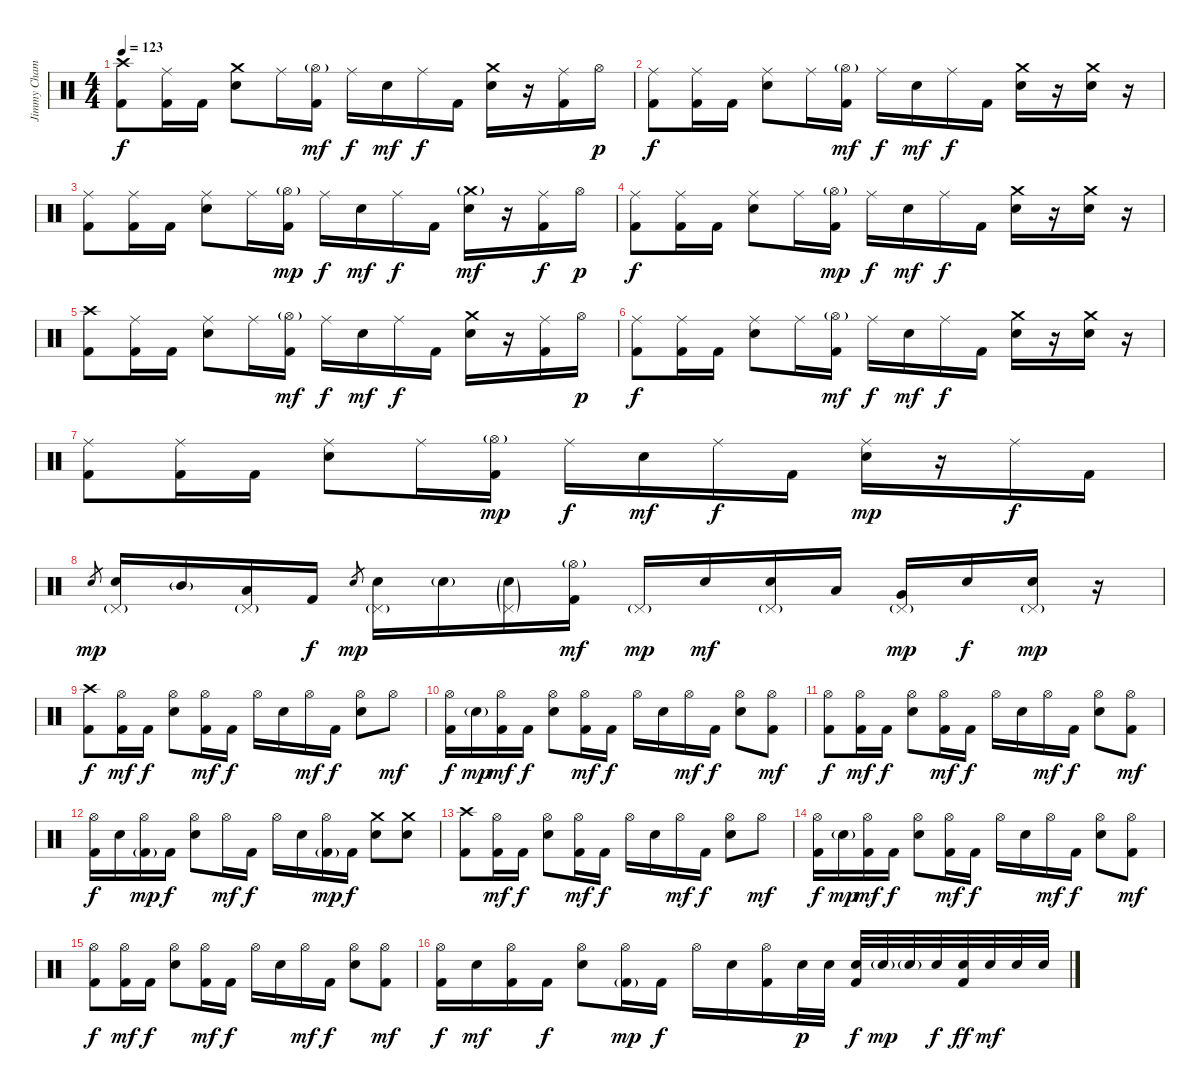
\track ("Jimmy Chamberlin" "Jimmy Cham") {instrument percussion}
\staff {score}
\articulation defaults
\ts (4 4)
\tempo 123
\clef neutral
\ks c
("Crash high (hit)" "Kick (hit) 2").8{dy f} ("Ride (middle)" "Kick (hit) 2").16 "Kick (hit) 2".16 ("Crash medium (hit)" "Electric Snare (hit)").8 "Ride (middle)".16 ("Hi-Hat (open)"{g} "Kick (hit) 2").16{dy mf} "Ride (middle)".16{dy f} "Electric Snare (hit)".16{dy mf} "Ride (middle)".16{dy f} "Kick (hit) 2".16 ("Crash medium (hit)" "Electric Snare (hit)").16 r.16 ("Ride (middle)" "Kick (hit) 2").16 "Hi-Hat (open)".16{dy p} |
("Ride (middle)" "Kick (hit) 2").8{dy f} ("Ride (middle)" "Kick (hit) 2").16 "Kick (hit) 2".16 ("Ride (middle)" "Electric Snare (hit)").8 "Ride (middle)".16 ("Hi-Hat (open)"{g} "Kick (hit) 2").16{dy mf} "Ride (middle)".16{dy f} "Electric Snare (hit)".16{dy mf} "Ride (middle)".16{dy f} "Kick (hit) 2".16 ("Crash medium (hit)" "Electric Snare (hit)").16 r.16 ("Crash medium (hit)" "Electric Snare (hit)").16 r.16 |
("Ride (middle)" "Kick (hit) 2").8 ("Ride (middle)" "Kick (hit) 2").16 "Kick (hit) 2".16 ("Ride (middle)" "Electric Snare (hit)").8 "Ride (middle)".16 ("Hi-Hat (open)"{g} "Kick (hit) 2").16{dy mp} "Ride (middle)".16{dy f} "Electric Snare (hit)".16{dy mf} "Ride (middle)".16{dy f} "Kick (hit) 2".16 ("Crash medium (hit)"{g} "Electric Snare (hit)").16{dy mf} r.16 ("Ride (middle)" "Kick (hit) 2").16{dy f} "Hi-Hat (open)".16{dy p} |
("Ride (middle)" "Kick (hit) 2").8{dy f} ("Ride (middle)" "Kick (hit) 2").16 "Kick (hit) 2".16 ("Ride (middle)" "Electric Snare (hit)").8 "Ride (middle)".16 ("Hi-Hat (open)"{g} "Kick (hit) 2").16{dy mp} "Ride (middle)".16{dy f} "Electric Snare (hit)".16{dy mf} "Ride (middle)".16{dy f} "Kick (hit) 2".16 ("Crash medium (hit)" "Electric Snare (hit)").16 r.16 ("Crash medium (hit)" "Electric Snare (hit)").16 r.16 |
("Crash high (hit)" "Kick (hit) 2").8 ("Ride (middle)" "Kick (hit) 2").16 "Kick (hit) 2".16 ("Ride (middle)" "Electric Snare (hit)").8 "Ride (middle)".16 ("Hi-Hat (open)"{g} "Kick (hit) 2").16{dy mf} "Ride (middle)".16{dy f} "Electric Snare (hit)".16{dy mf} "Ride (middle)".16{dy f} "Kick (hit) 2".16 ("Crash medium (hit)" "Electric Snare (hit)").16 r.16 ("Ride (middle)" "Kick (hit) 2").16 "Hi-Hat (open)".16{dy p} |
("Ride (middle)" "Kick (hit) 2").8{dy f} ("Ride (middle)" "Kick (hit) 2").16 "Kick (hit) 2".16 ("Ride (middle)" "Electric Snare (hit)").8 "Ride (middle)".16 ("Hi-Hat (open)"{g} "Kick (hit) 2").16{dy mf} "Ride (middle)".16{dy f} "Electric Snare (hit)".16{dy mf} "Ride (middle)".16{dy f} "Kick (hit) 2".16 ("Crash medium (hit)" "Electric Snare (hit)").16 r.16 ("Crash medium (hit)" "Electric Snare (hit)").16 r.16 |
("Ride (middle)" "Kick (hit) 2").8 ("Ride (middle)" "Kick (hit) 2").16 "Kick (hit) 2".16 ("Ride (middle)" "Electric Snare (hit)").8 "Ride (middle)".16 ("Hi-Hat (open)"{g} "Kick (hit) 2").16{dy mp} "Ride (middle)".16{dy f} "Electric Snare (hit)".16{dy mf} "Ride (middle)".16{dy f} "Kick (hit) 2".16 ("Ride (middle)" "Electric Snare (hit)").16{dy mp} r.16 "Ride (middle)".16{dy f} "Kick (hit) 2".16 |
"Electric Snare (hit)".8{gr dy mp} ("Pedal Hi-Hat (hit)"{g} "Electric Snare (hit)").16 "Mid Tom (hit)"{g}.16 ("Pedal Hi-Hat (hit)"{g} "Low Tom (hit)").16 "Kick (hit) 2".16{dy f} "Electric Snare (hit)".8{gr dy mp} ("Pedal Hi-Hat (hit)"{g} "Electric Snare (hit)").16 "Electric Snare (hit)"{g}.16 ("Pedal Hi-Hat (hit)"{g} "Electric Snare (hit)"{g}).16 ("Hi-Hat (open)"{g} "Kick (hit) 2").16{dy mf} "Pedal Hi-Hat (hit)"{g}.16{dy mp} "Electric Snare (hit)".16{dy mf} ("Pedal Hi-Hat (hit)"{g} "Electric Snare (hit)").16 "Low Tom (hit)".16 ("Pedal Hi-Hat (hit)"{g} "Very Low Tom (hit)").16{dy mp} "Electric Snare (hit)".16{dy f} ("Pedal Hi-Hat (hit)"{g} "Electric Snare (hit)").16{dy mp} r.16 |
("Crash high (hit)" "Kick (hit) 2").8{dy f} ("Hi-Hat (open)" "Kick (hit) 2").16{dy mf} "Kick (hit) 2".16{dy f} ("Hi-Hat (open)" "Electric Snare (hit)").8 ("Hi-Hat (open)" "Kick (hit) 2").16{dy mf} "Kick (hit) 2".16{dy f} "Hi-Hat (open)".16 "Electric Snare (hit)".16 "Hi-Hat (open)".16{dy mf} "Kick (hit) 2".16{dy f} ("Hi-Hat (open)" "Electric Snare (hit)").8 "Hi-Hat (open)".8{dy mf} |
("Hi-Hat (open)" "Kick (hit) 2").16{dy f} "Electric Snare (hit)"{g}.16{dy mp} ("Hi-Hat (open)" "Kick (hit) 2").16{dy mf} "Kick (hit) 2".16{dy f} ("Hi-Hat (open)" "Electric Snare (hit)").8 ("Hi-Hat (open)" "Kick (hit) 2").16{dy mf} "Kick (hit) 2".16{dy f} "Hi-Hat (open)".16 "Electric Snare (hit)".16 "Hi-Hat (open)".16{dy mf} "Kick (hit) 2".16{dy f} ("Hi-Hat (open)" "Electric Snare (hit)").8 ("Hi-Hat (open)" "Kick (hit) 2").8{dy mf} |
("Hi-Hat (open)" "Kick (hit) 2").8{dy f} ("Hi-Hat (open)" "Kick (hit) 2").16{dy mf} "Kick (hit) 2".16{dy f} ("Hi-Hat (open)" "Electric Snare (hit)").8 ("Hi-Hat (open)" "Kick (hit) 2").16{dy mf} "Kick (hit) 2".16{dy f} "Hi-Hat (open)".16 "Electric Snare (hit)".16 "Hi-Hat (open)".16{dy mf} "Kick (hit) 2".16{dy f} ("Hi-Hat (open)" "Electric Snare (hit)").8 ("Hi-Hat (open)" "Kick (hit) 2").8{dy mf} |
("Hi-Hat (open)" "Kick (hit) 2").16{dy f} "Electric Snare (hit)".16 ("Hi-Hat (open)" "Kick (hit) 2"{g}).16{dy mp} "Kick (hit) 2".16{dy f} ("Hi-Hat (open)" "Electric Snare (hit)").8 "Hi-Hat (open)".16{dy mf} "Kick (hit) 2".16{dy f} "Hi-Hat (open)".16 "Electric Snare (hit)".16 ("Hi-Hat (open)" "Kick (hit) 2"{g}).16{dy mp} "Kick (hit) 2".16{dy f} ("Crash medium (hit)" "Electric Snare (hit)").8 ("Crash medium (hit)" "Electric Snare (hit)").8 |
("Crash high (hit)" "Kick (hit) 2").8 ("Hi-Hat (open)" "Kick (hit) 2").16{dy mf} "Kick (hit) 2".16{dy f} ("Hi-Hat (open)" "Electric Snare (hit)").8 ("Hi-Hat (open)" "Kick (hit) 2").16{dy mf} "Kick (hit) 2".16{dy f} "Hi-Hat (open)".16 "Electric Snare (hit)".16 "Hi-Hat (open)".16{dy mf} "Kick (hit) 2".16{dy f} ("Hi-Hat (open)" "Electric Snare (hit)").8 "Hi-Hat (open)".8{dy mf} |
("Hi-Hat (open)" "Kick (hit) 2").16{dy f} "Electric Snare (hit)"{g}.16{dy mp} ("Hi-Hat (open)" "Kick (hit) 2").16{dy mf} "Kick (hit) 2".16{dy f} ("Hi-Hat (open)" "Electric Snare (hit)").8 ("Hi-Hat (open)" "Kick (hit) 2").16{dy mf} "Kick (hit) 2".16{dy f} "Hi-Hat (open)".16 "Electric Snare (hit)".16 "Hi-Hat (open)".16{dy mf} "Kick (hit) 2".16{dy f} ("Hi-Hat (open)" "Electric Snare (hit)").8 ("Hi-Hat (open)" "Kick (hit) 2").8{dy mf} |
("Hi-Hat (open)" "Kick (hit) 2").8{dy f} ("Hi-Hat (open)" "Kick (hit) 2").16{dy mf} "Kick (hit) 2".16{dy f} ("Hi-Hat (open)" "Electric Snare (hit)").8 ("Hi-Hat (open)" "Kick (hit) 2").16{dy mf} "Kick (hit) 2".16{dy f} "Hi-Hat (open)".16 "Electric Snare (hit)".16 "Hi-Hat (open)".16{dy mf} "Kick (hit) 2".16{dy f} ("Hi-Hat (open)" "Electric Snare (hit)").8 ("Hi-Hat (open)" "Kick (hit) 2").8{dy mf} |
("Hi-Hat (open)" "Kick (hit) 2").16{dy f} "Electric Snare (hit)".16{dy mf} ("Hi-Hat (open)" "Kick (hit) 2").16 "Kick (hit) 2".16{dy f} ("Hi-Hat (open)" "Electric Snare (hit)").8 ("Hi-Hat (open)" "Kick (hit) 2"{g}).16{dy mp} "Kick (hit) 2".16{dy f} "Hi-Hat (open)".16 "Electric Snare (hit)".16 ("Hi-Hat (open)" "Kick (hit) 2").16 "Electric Snare (hit)".32{dy p} "Electric Snare (hit)".32 ("Electric Snare (hit)" "Kick (hit) 2").32{dy f} "Electric Snare (hit)"{g}.32{dy mp} "Electric Snare (hit)"{g}.32 "Electric Snare (hit)".32{dy f} ("Electric Snare (hit)" "Kick (hit) 2").32{dy ff} "Electric Snare (hit)".32{dy mf} "Electric Snare (hit)".32 "Electric Snare (hit)".32
